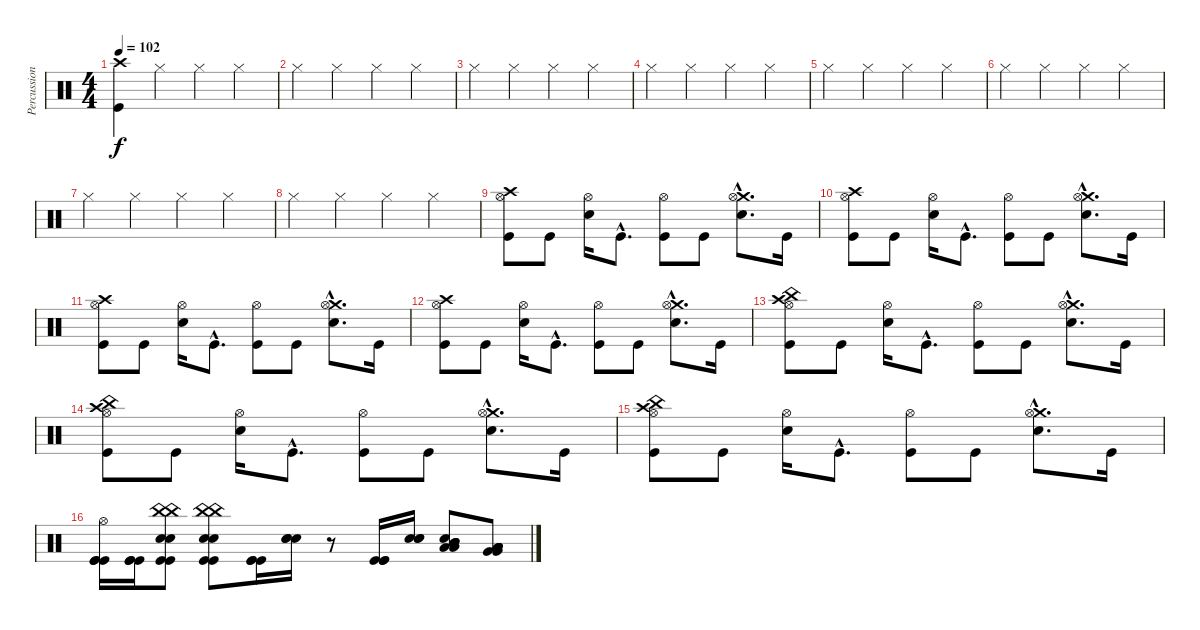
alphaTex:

\track ("Percussion (David)" "Percussion") {instrument percussion}
\staff {score}
\articulation defaults
\ts (4 4)
\tempo 102
\clef neutral
\ks c
("Kick (hit)" "Crash high (hit)").4{dy f} "Hi-Hat (closed)".4 "Hi-Hat (closed)".4 "Hi-Hat (closed)".4 |
"Hi-Hat (closed)".4 "Hi-Hat (closed)".4 "Hi-Hat (closed)".4 "Hi-Hat (closed)".4 |
"Hi-Hat (closed)".4 "Hi-Hat (closed)".4 "Hi-Hat (closed)".4 "Hi-Hat (closed)".4 |
"Hi-Hat (closed)".4 "Hi-Hat (closed)".4 "Hi-Hat (closed)".4 "Hi-Hat (closed)".4 |
"Hi-Hat (closed)".4 "Hi-Hat (closed)".4 "Hi-Hat (closed)".4 "Hi-Hat (closed)".4 |
"Hi-Hat (closed)".4 "Hi-Hat (closed)".4 "Hi-Hat (closed)".4 "Hi-Hat (closed)".4 |
"Hi-Hat (closed)".4 "Hi-Hat (closed)".4 "Hi-Hat (closed)".4 "Hi-Hat (closed)".4 |
"Hi-Hat (closed)".4 "Hi-Hat (closed)".4 "Hi-Hat (closed)".4 "Hi-Hat (closed)".4 |
("Kick (hit)" "Crash high (hit)" "Hi-Hat (open)").8 "Kick (hit)".8 ("Electric Snare (hit)" "Hi-Hat (open)").16 "Kick (hit)"{hac}.8{d} ("Kick (hit)" "Hi-Hat (open)").8 "Kick (hit)".8 ("Electric Snare (hit)"{hac} "Crash medium (hit)"{hac} "Hi-Hat (open)"{hac}).8{d} "Kick (hit)".16 |
("Kick (hit)" "Crash high (hit)" "Hi-Hat (open)").8 "Kick (hit)".8 ("Electric Snare (hit)" "Hi-Hat (open)").16 "Kick (hit)"{hac}.8{d} ("Kick (hit)" "Hi-Hat (open)").8 "Kick (hit)".8 ("Electric Snare (hit)"{hac} "Crash medium (hit)"{hac} "Hi-Hat (open)"{hac}).8{d} "Kick (hit)".16 |
("Kick (hit)" "Crash high (hit)" "Hi-Hat (open)").8 "Kick (hit)".8 ("Electric Snare (hit)" "Hi-Hat (open)").16 "Kick (hit)"{hac}.8{d} ("Kick (hit)" "Hi-Hat (open)").8 "Kick (hit)".8 ("Electric Snare (hit)"{hac} "Crash medium (hit)"{hac} "Hi-Hat (open)"{hac}).8{d} "Kick (hit)".16 |
("Kick (hit)" "Crash high (hit)" "Hi-Hat (open)").8 "Kick (hit)".8 ("Electric Snare (hit)" "Hi-Hat (open)").16 "Kick (hit)"{hac}.8{d} ("Kick (hit)" "Hi-Hat (open)").8 "Kick (hit)".8 ("Electric Snare (hit)"{hac} "Crash medium (hit)"{hac} "Hi-Hat (open)"{hac}).8{d} "Kick (hit)".16 |
("Kick (hit)" "Crash high (hit)" "Hi-Hat (open)" "China (hit)").8 "Kick (hit)".8 ("Electric Snare (hit)" "Hi-Hat (open)").16 "Kick (hit)"{hac}.8{d} ("Kick (hit)" "Hi-Hat (open)").8 "Kick (hit)".8 ("Electric Snare (hit)"{hac} "Crash medium (hit)"{hac} "Hi-Hat (open)"{hac}).8{d} "Kick (hit)".16 |
("Kick (hit)" "Crash high (hit)" "Hi-Hat (open)" "China (hit)").8 "Kick (hit)".8 ("Electric Snare (hit)" "Hi-Hat (open)").16 "Kick (hit)"{hac}.8{d} ("Kick (hit)" "Hi-Hat (open)").8 "Kick (hit)".8 ("Electric Snare (hit)"{hac} "Crash medium (hit)"{hac} "Hi-Hat (open)"{hac}).8{d} "Kick (hit)".16 |
("Kick (hit)" "Crash high (hit)" "Hi-Hat (open)" "China (hit)").8 "Kick (hit)".8 ("Electric Snare (hit)" "Hi-Hat (open)").16 "Kick (hit)"{hac}.8{d} ("Kick (hit)" "Hi-Hat (open)").8 "Kick (hit)".8 ("Electric Snare (hit)"{hac} "Crash medium (hit)"{hac} "Hi-Hat (open)"{hac}).8{d} "Kick (hit)".16 |
("Kick (hit)" "Kick (hit)" "Kick (hit)" "Hi-Hat (open)").16 ("Kick (hit)" "Kick (hit)" "Kick (hit)").16 ("Electric Snare (hit)" "Kick (hit)" "Kick (hit)" "Electric Snare (hit)" "China (hit)" "China (hit)").8 ("Electric Snare (hit)" "Kick (hit)" "Kick (hit)" "Electric Snare (hit)" "China (hit)" "China (hit)").8 ("Kick (hit)" "Kick (hit)" "Kick (hit)").16 ("Electric Snare (hit)" "Electric Snare (hit)" "Electric Snare (hit)").16 r.8 ("Kick (hit)" "Kick (hit)" "Kick (hit)").16 ("Electric Snare (hit)" "Electric Snare (hit)" "Electric Snare (hit)").16 ("Electric Snare (hit)" "Mid Tom (hit)" "Mid Tom (hit)" "Mid Tom (hit)" "Low Tom (hit)" "Low Tom (hit)").8 ("Very Low Tom (hit)" "Very Low Tom (hit)" "Low Floor Tom (hit)" "Low Floor Tom (hit)" "Low Floor Tom (hit)" "Low Floor Tom (hit)").8
